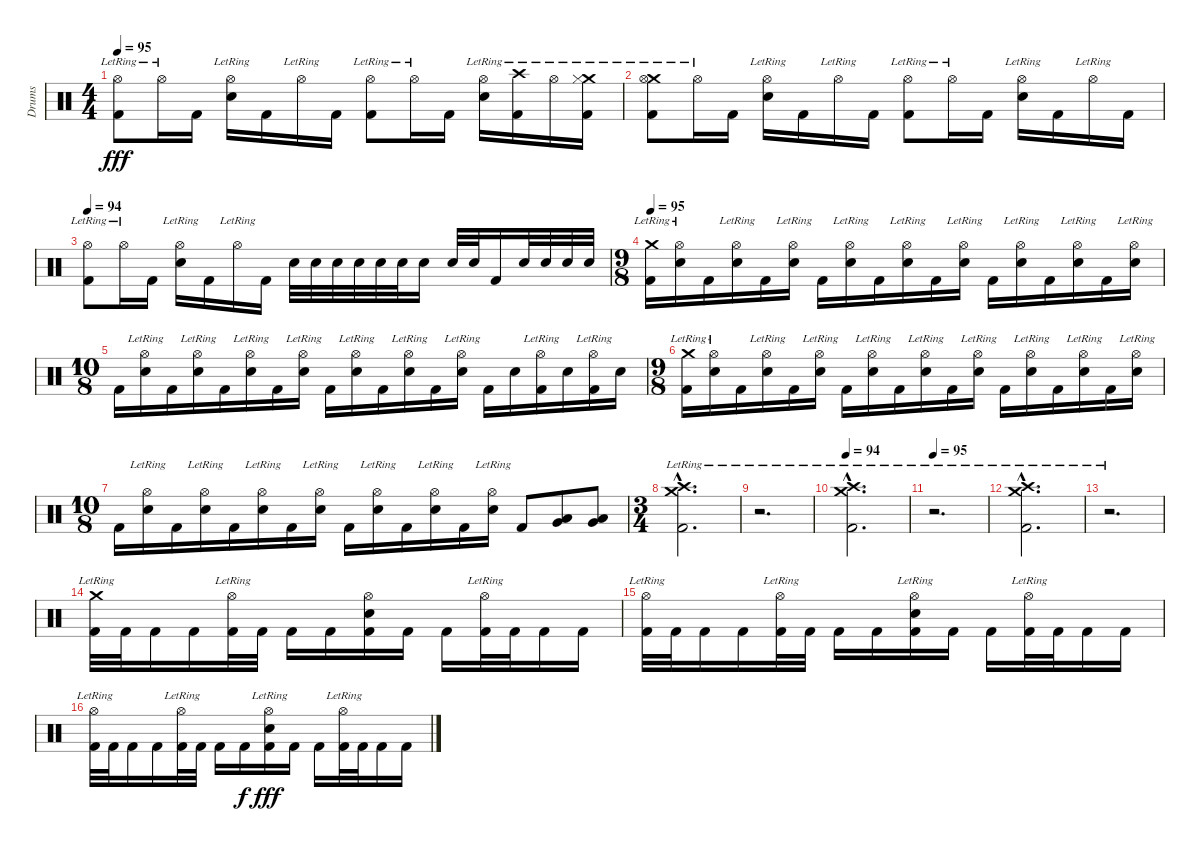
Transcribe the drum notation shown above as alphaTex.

\track ("Drums" "Drums") {instrument percussion}
\staff {score}
\articulation defaults
\ts (4 4)
\tempo 95
\clef neutral
\ks c
("Hi-Hat (open)"{lr} "Kick (hit) 2").8{dy fff} "Hi-Hat (open)"{lr}.16 "Kick (hit) 2".16 ("Hi-Hat (open)"{lr} "Electric Snare (hit)").16 "Kick (hit) 2".16 "Hi-Hat (open)"{lr}.16 "Kick (hit) 2".16 ("Hi-Hat (open)"{lr} "Kick (hit) 2").8 "Hi-Hat (open)"{lr}.16 "Kick (hit) 2".16 ("Hi-Hat (open)"{lr} "Electric Snare (hit)").16 ("Crash high (hit)"{lr} "Kick (hit) 2").16 "Hi-Hat (open)"{lr}.16 ("Crash medium (hit)"{lr} "Hi-Hat (closed)" "Kick (hit) 2").16 |
("Crash medium (hit)"{lr} "Hi-Hat (open)"{lr} "Kick (hit) 2").8 "Hi-Hat (open)"{lr}.16 "Kick (hit) 2".16 ("Hi-Hat (open)"{lr} "Electric Snare (hit)").16 "Kick (hit) 2".16 "Hi-Hat (open)"{lr}.16 "Kick (hit) 2".16 ("Hi-Hat (open)"{lr} "Kick (hit) 2").8 "Hi-Hat (open)"{lr}.16 "Kick (hit) 2".16 ("Hi-Hat (open)"{lr} "Electric Snare (hit)").16 "Kick (hit) 2".16 "Hi-Hat (open)"{lr}.16 "Kick (hit) 2".16 |
\tempo 94
("Hi-Hat (open)"{lr} "Kick (hit) 2").8 "Hi-Hat (open)"{lr}.16 "Kick (hit) 2".16 ("Hi-Hat (open)"{lr} "Electric Snare (hit)").16 "Kick (hit) 2".16 "Hi-Hat (open)"{lr}.16 "Kick (hit) 2".16 "Electric Snare (hit)".32 "Electric Snare (hit)".32 "Electric Snare (hit)".32 "Electric Snare (hit)".32 "Electric Snare (hit)".32 "Electric Snare (hit)".32 "Electric Snare (hit)".16 "Electric Snare (hit)".32 "Electric Snare (hit)".32 "Kick (hit) 2".16 "Electric Snare (hit)".32 "Electric Snare (hit)".32 "Electric Snare (hit)".32 "Electric Snare (hit)".32 |
\ts (9 8)
\tempo 95
("Crash medium (hit)"{lr} "Kick (hit) 2").16 ("Hi-Hat (open)"{lr} "Electric Snare (hit)").16 "Kick (hit) 2".16 ("Hi-Hat (open)"{lr} "Electric Snare (hit)").16 "Kick (hit) 2".16 ("Hi-Hat (open)"{lr} "Electric Snare (hit)").16 "Kick (hit) 2".16 ("Hi-Hat (open)"{lr} "Electric Snare (hit)").16 "Kick (hit) 2".16 ("Hi-Hat (open)"{lr} "Electric Snare (hit)").16 "Kick (hit) 2".16 ("Hi-Hat (open)"{lr} "Electric Snare (hit)").16 "Kick (hit) 2".16 ("Hi-Hat (open)"{lr} "Electric Snare (hit)").16 "Kick (hit) 2".16 ("Hi-Hat (open)"{lr} "Electric Snare (hit)").16 "Kick (hit) 2".16 ("Hi-Hat (open)"{lr} "Electric Snare (hit)").16 |
\ts (10 8)
"Kick (hit) 2".16 ("Hi-Hat (open)"{lr} "Electric Snare (hit)").16 "Kick (hit) 2".16 ("Hi-Hat (open)"{lr} "Electric Snare (hit)").16 "Kick (hit) 2".16 ("Hi-Hat (open)"{lr} "Electric Snare (hit)").16 "Kick (hit) 2".16 ("Hi-Hat (open)"{lr} "Electric Snare (hit)").16 "Kick (hit) 2".16 ("Hi-Hat (open)"{lr} "Electric Snare (hit)").16 "Kick (hit) 2".16 ("Hi-Hat (open)"{lr} "Electric Snare (hit)").16 "Kick (hit) 2".16 ("Hi-Hat (open)"{lr} "Electric Snare (hit)").16 "Kick (hit) 2".16 "Electric Snare (hit)".16 ("Hi-Hat (open)"{lr} "Kick (hit) 2").16 "Electric Snare (hit)".16 ("Hi-Hat (open)"{lr} "Kick (hit) 2").16 "Electric Snare (hit)".16 |
\ts (9 8)
("Crash medium (hit)"{lr} "Kick (hit) 2").16 ("Hi-Hat (open)"{lr} "Electric Snare (hit)").16 "Kick (hit) 2".16 ("Hi-Hat (open)"{lr} "Electric Snare (hit)").16 "Kick (hit) 2".16 ("Hi-Hat (open)"{lr} "Electric Snare (hit)").16 "Kick (hit) 2".16 ("Hi-Hat (open)"{lr} "Electric Snare (hit)").16 "Kick (hit) 2".16 ("Hi-Hat (open)"{lr} "Electric Snare (hit)").16 "Kick (hit) 2".16 ("Hi-Hat (open)"{lr} "Electric Snare (hit)").16 "Kick (hit) 2".16 ("Hi-Hat (open)"{lr} "Electric Snare (hit)").16 "Kick (hit) 2".16 ("Hi-Hat (open)"{lr} "Electric Snare (hit)").16 "Kick (hit) 2".16 ("Hi-Hat (open)"{lr} "Electric Snare (hit)").16 |
\ts (10 8)
"Kick (hit) 2".16 ("Hi-Hat (open)"{lr} "Electric Snare (hit)").16 "Kick (hit) 2".16 ("Hi-Hat (open)"{lr} "Electric Snare (hit)").16 "Kick (hit) 2".16 ("Hi-Hat (open)"{lr} "Electric Snare (hit)").16 "Kick (hit) 2".16 ("Hi-Hat (open)"{lr} "Electric Snare (hit)").16 "Kick (hit) 2".16 ("Hi-Hat (open)"{lr} "Electric Snare (hit)").16 "Kick (hit) 2".16 ("Hi-Hat (open)"{lr} "Electric Snare (hit)").16 "Kick (hit) 2".16 ("Hi-Hat (open)"{lr} "Electric Snare (hit)").16 "Kick (hit) 2".8 ("Low Floor Tom (hit)" "Very Low Tom (hit)").8 ("Low Floor Tom (hit)" "Very Low Tom (hit)").8 |
\ts (3 4)
("Crash high (hit)"{hac lr} "Crash medium (hit)"{hac lr} "Kick (hit) 2"{hac}).2{d} |
r.2{d} |
\tempo 94
("Crash high (hit)"{hac lr} "Crash medium (hit)"{hac lr} "Kick (hit) 2"{hac}).2{d} |
\tempo 95
r.2{d} |
("Crash high (hit)"{hac lr} "Crash medium (hit)"{hac lr} "Kick (hit) 2"{hac}).2{d} |
r.2{d} |
("Crash medium (hit)"{lr} "Kick (hit) 2").32 "Kick (hit) 2".32 "Kick (hit) 2".16 "Kick (hit) 2".16 ("Hi-Hat (open)"{lr} "Kick (hit) 2").32 "Kick (hit) 2".32 "Kick (hit) 2".16 "Kick (hit) 2".16 ("Hi-Hat (open)" "Electric Snare (hit)" "Kick (hit) 2").16 "Kick (hit) 2".16 "Kick (hit) 2".16 ("Hi-Hat (open)"{lr} "Kick (hit) 2").32 "Kick (hit) 2".32 "Kick (hit) 2".16 "Kick (hit) 2".16 |
("Hi-Hat (open)"{lr} "Kick (hit) 2").32 "Kick (hit) 2".32 "Kick (hit) 2".16 "Kick (hit) 2".16 ("Hi-Hat (open)"{lr} "Kick (hit) 2").32 "Kick (hit) 2".32 "Kick (hit) 2".16 "Kick (hit) 2".16 ("Hi-Hat (open)"{lr} "Electric Snare (hit)" "Kick (hit) 2").16 "Kick (hit) 2".16 "Kick (hit) 2".16 ("Hi-Hat (open)"{lr} "Kick (hit) 2").32 "Kick (hit) 2".32 "Kick (hit) 2".16 "Kick (hit) 2".16 |
("Hi-Hat (open)"{lr} "Kick (hit) 2").32 "Kick (hit) 2".32 "Kick (hit) 2".16 "Kick (hit) 2".16 ("Hi-Hat (open)"{lr} "Kick (hit) 2").32 "Kick (hit) 2".32 "Kick (hit) 2".16 "Kick (hit) 2".16{dy f} ("Hi-Hat (open)"{lr} "Electric Snare (hit)" "Kick (hit) 2").16{dy fff} "Kick (hit) 2".16 "Kick (hit) 2".16 ("Hi-Hat (open)"{lr} "Kick (hit) 2").32 "Kick (hit) 2".32 "Kick (hit) 2".16 "Kick (hit) 2".16
